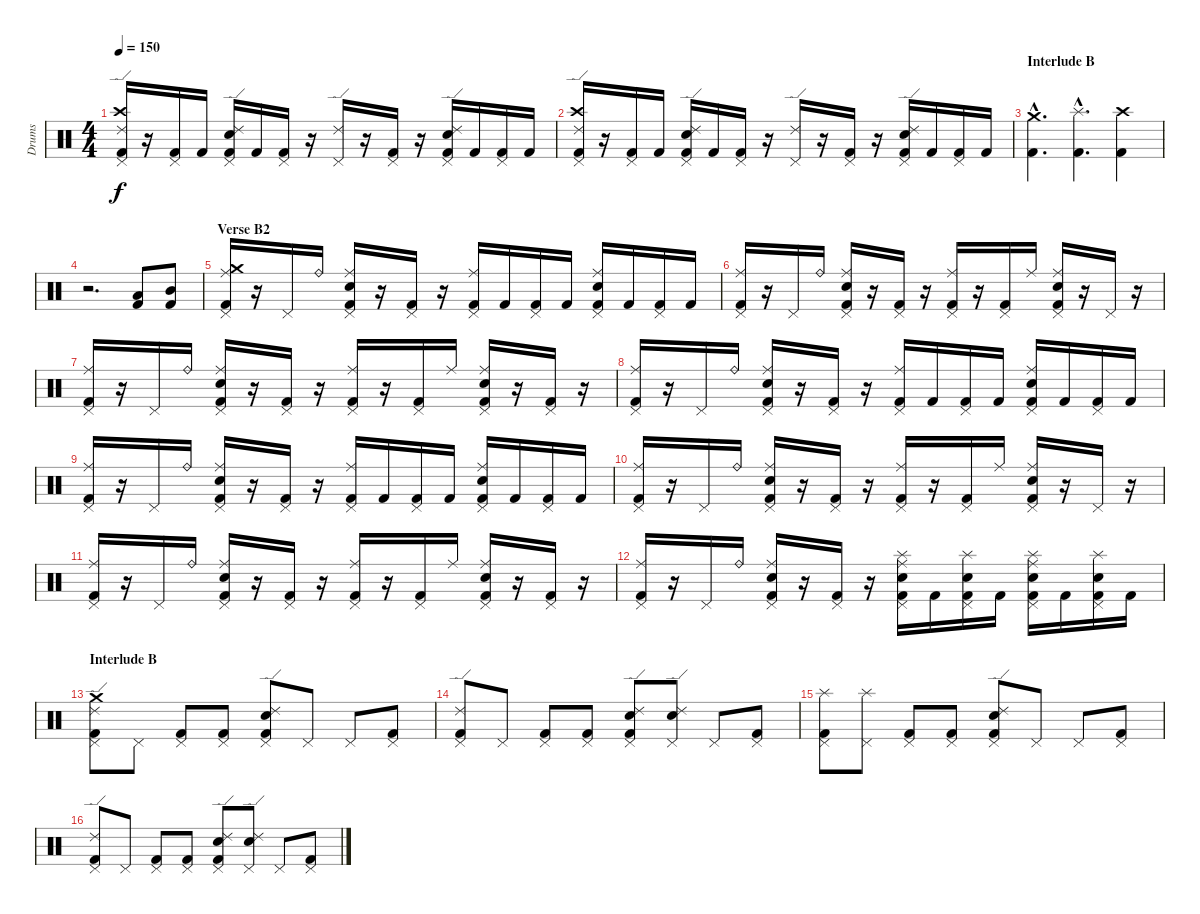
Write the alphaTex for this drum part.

\track ("Drums" "Drums") {instrument percussion}
\staff {score}
\articulation defaults
\ts (4 4)
\tempo 150
\clef neutral
\ks c
("Kick (hit) 2" "Pedal Hi-Hat (hit)" "Crash high (hit)" "Ride (edge) 2").16{dy f} r.16 ("Kick (hit) 2" "Pedal Hi-Hat (hit)").16 "Kick (hit) 2".16 ("Kick (hit) 2" "Snare (hit) 2" "Pedal Hi-Hat (hit)" "Ride (edge) 2").16 "Kick (hit) 2".16 ("Kick (hit) 2" "Pedal Hi-Hat (hit)").16 r.16 ("Pedal Hi-Hat (hit)" "Ride (edge) 2").16 r.16 ("Kick (hit) 2" "Pedal Hi-Hat (hit)").16 r.16 ("Kick (hit) 2" "Snare (hit) 2" "Pedal Hi-Hat (hit)" "Ride (edge) 2").16 "Kick (hit) 2".16 ("Kick (hit) 2" "Pedal Hi-Hat (hit)").16 "Kick (hit) 2".16 |
("Kick (hit) 2" "Pedal Hi-Hat (hit)" "Crash high (hit)" "Ride (edge) 2").16 r.16 ("Kick (hit) 2" "Pedal Hi-Hat (hit)").16 "Kick (hit) 2".16 ("Kick (hit) 2" "Snare (hit) 2" "Pedal Hi-Hat (hit)" "Ride (edge) 2").16 "Kick (hit) 2".16 ("Kick (hit) 2" "Pedal Hi-Hat (hit)").16 r.16 ("Pedal Hi-Hat (hit)" "Ride (edge) 2").16 r.16 ("Kick (hit) 2" "Pedal Hi-Hat (hit)").16 r.16 ("Kick (hit) 2" "Snare (hit) 2" "Pedal Hi-Hat (hit)" "Ride (edge) 2").16 "Kick (hit) 2".16 ("Kick (hit) 2" "Pedal Hi-Hat (hit)").16 "Kick (hit) 2".16 |
\section ("" "Interlude B")
("Kick (hit) 2"{hac} "Crash medium (hit)"{hac}).4{d} ("Kick (hit) 2"{hac} "Splash (hit)"{hac}).4{d} ("Kick (hit) 2" "Crash high (hit)").4 |
r.2{d} ("Kick (hit) 2" "Low Tom (hit)").8 ("Kick (hit) 2" "Mid Tom (hit)").8 |
\section ("" "Verse B2")
("Kick (hit) 2" "Crash medium (hit)" "Pedal Hi-Hat (hit)" "Ride (middle)").16 r.16 "Pedal Hi-Hat (hit)".16 "Ride (bell)".16 ("Kick (hit) 2" "Pedal Hi-Hat (hit)" "Snare (hit) 2" "Ride (middle)").16 r.16 ("Kick (hit) 2" "Pedal Hi-Hat (hit)").16 r.16 ("Kick (hit) 2" "Pedal Hi-Hat (hit)" "Ride (middle)").16 "Kick (hit) 2".16 ("Kick (hit) 2" "Pedal Hi-Hat (hit)").16 "Kick (hit) 2".16 ("Kick (hit) 2" "Pedal Hi-Hat (hit)" "Snare (hit) 2" "Ride (middle)").16 "Kick (hit) 2".16 ("Kick (hit) 2" "Pedal Hi-Hat (hit)").16 "Kick (hit) 2".16 |
("Kick (hit) 2" "Pedal Hi-Hat (hit)" "Ride (middle)").16 r.16 "Pedal Hi-Hat (hit)".16 "Ride (bell)".16 ("Kick (hit) 2" "Pedal Hi-Hat (hit)" "Snare (hit) 2" "Ride (middle)").16 r.16 ("Kick (hit) 2" "Pedal Hi-Hat (hit)").16 r.16 ("Kick (hit) 2" "Pedal Hi-Hat (hit)" "Ride (middle)").16 r.16 ("Kick (hit) 2" "Pedal Hi-Hat (hit)").16 "Ride (middle)".16 ("Kick (hit) 2" "Pedal Hi-Hat (hit)" "Snare (hit) 2" "Ride (middle)").16 r.16 "Pedal Hi-Hat (hit)".16 r.16 |
("Kick (hit) 2" "Pedal Hi-Hat (hit)" "Ride (middle)").16 r.16 "Pedal Hi-Hat (hit)".16 "Ride (bell)".16 ("Kick (hit) 2" "Pedal Hi-Hat (hit)" "Snare (hit) 2" "Ride (middle)").16 r.16 ("Kick (hit) 2" "Pedal Hi-Hat (hit)").16 r.16 ("Kick (hit) 2" "Pedal Hi-Hat (hit)" "Ride (middle)").16 r.16 ("Kick (hit) 2" "Pedal Hi-Hat (hit)").16 "Ride (middle)".16 ("Kick (hit) 2" "Pedal Hi-Hat (hit)" "Snare (hit) 2" "Ride (middle)").16 r.16 ("Kick (hit) 2" "Pedal Hi-Hat (hit)").16 r.16 |
("Kick (hit) 2" "Pedal Hi-Hat (hit)" "Ride (middle)").16 r.16 "Pedal Hi-Hat (hit)".16 "Ride (bell)".16 ("Kick (hit) 2" "Pedal Hi-Hat (hit)" "Snare (hit) 2" "Ride (middle)").16 r.16 ("Kick (hit) 2" "Pedal Hi-Hat (hit)").16 r.16 ("Kick (hit) 2" "Pedal Hi-Hat (hit)" "Ride (middle)").16 "Kick (hit) 2".16 ("Kick (hit) 2" "Pedal Hi-Hat (hit)").16 "Kick (hit) 2".16 ("Kick (hit) 2" "Pedal Hi-Hat (hit)" "Snare (hit) 2" "Ride (middle)").16 "Kick (hit) 2".16 ("Kick (hit) 2" "Pedal Hi-Hat (hit)").16 "Kick (hit) 2".16 |
("Kick (hit) 2" "Pedal Hi-Hat (hit)" "Ride (middle)").16 r.16 "Pedal Hi-Hat (hit)".16 "Ride (bell)".16 ("Kick (hit) 2" "Pedal Hi-Hat (hit)" "Snare (hit) 2" "Ride (middle)").16 r.16 ("Kick (hit) 2" "Pedal Hi-Hat (hit)").16 r.16 ("Kick (hit) 2" "Pedal Hi-Hat (hit)" "Ride (middle)").16 "Kick (hit) 2".16 ("Kick (hit) 2" "Pedal Hi-Hat (hit)").16 "Kick (hit) 2".16 ("Kick (hit) 2" "Pedal Hi-Hat (hit)" "Snare (hit) 2" "Ride (middle)").16 "Kick (hit) 2".16 ("Kick (hit) 2" "Pedal Hi-Hat (hit)").16 "Kick (hit) 2".16 |
("Kick (hit) 2" "Pedal Hi-Hat (hit)" "Ride (middle)").16 r.16 "Pedal Hi-Hat (hit)".16 "Ride (bell)".16 ("Kick (hit) 2" "Pedal Hi-Hat (hit)" "Snare (hit) 2" "Ride (middle)").16 r.16 ("Kick (hit) 2" "Pedal Hi-Hat (hit)").16 r.16 ("Kick (hit) 2" "Pedal Hi-Hat (hit)" "Ride (middle)").16 r.16 ("Kick (hit) 2" "Pedal Hi-Hat (hit)").16 "Ride (middle)".16 ("Kick (hit) 2" "Pedal Hi-Hat (hit)" "Snare (hit) 2" "Ride (middle)").16 r.16 "Pedal Hi-Hat (hit)".16 r.16 |
("Kick (hit) 2" "Pedal Hi-Hat (hit)" "Ride (middle)").16 r.16 "Pedal Hi-Hat (hit)".16 "Ride (bell)".16 ("Kick (hit) 2" "Pedal Hi-Hat (hit)" "Snare (hit) 2" "Ride (middle)").16 r.16 ("Kick (hit) 2" "Pedal Hi-Hat (hit)").16 r.16 ("Kick (hit) 2" "Pedal Hi-Hat (hit)" "Ride (middle)").16 r.16 ("Kick (hit) 2" "Pedal Hi-Hat (hit)").16 "Ride (middle)".16 ("Kick (hit) 2" "Pedal Hi-Hat (hit)" "Snare (hit) 2" "Ride (middle)").16 r.16 ("Kick (hit) 2" "Pedal Hi-Hat (hit)").16 r.16 |
("Kick (hit) 2" "Pedal Hi-Hat (hit)" "Ride (middle)").16 r.16 "Pedal Hi-Hat (hit)".16 "Ride (bell)".16 ("Kick (hit) 2" "Pedal Hi-Hat (hit)" "Snare (hit) 2" "Ride (middle)").16 r.16 ("Kick (hit) 2" "Pedal Hi-Hat (hit)").16 r.16 ("Kick (hit) 2" "Splash (hit)" "Pedal Hi-Hat (hit)" "Snare (hit) 2" "Ride (middle)").16 "Kick (hit) 2".16 ("Kick (hit) 2" "Splash (hit)" "Pedal Hi-Hat (hit)" "Snare (hit) 2").16 "Kick (hit) 2".16 ("Kick (hit) 2" "Splash (hit)" "Pedal Hi-Hat (hit)" "Snare (hit) 2" "Ride (middle)").16 "Kick (hit) 2".16 ("Kick (hit) 2" "Splash (hit)" "Pedal Hi-Hat (hit)" "Snare (hit) 2").16 "Kick (hit) 2".16 |
\section ("" "Interlude B")
("Kick (hit) 2" "Crash medium (hit)" "Ride (edge) 2" "Pedal Hi-Hat (hit)").8 "Pedal Hi-Hat (hit)".8 ("Kick (hit) 2" "Pedal Hi-Hat (hit)").8 ("Kick (hit) 2" "Pedal Hi-Hat (hit)").8 ("Kick (hit) 2" "Snare (hit) 2" "Ride (edge) 2" "Pedal Hi-Hat (hit)").8 "Pedal Hi-Hat (hit)".8 "Pedal Hi-Hat (hit)".8 ("Kick (hit) 2" "Pedal Hi-Hat (hit)").8 |
("Kick (hit) 2" "Ride (edge) 2" "Pedal Hi-Hat (hit)").8 "Pedal Hi-Hat (hit)".8 ("Kick (hit) 2" "Pedal Hi-Hat (hit)").8 ("Kick (hit) 2" "Pedal Hi-Hat (hit)").8 ("Kick (hit) 2" "Snare (hit) 2" "Ride (edge) 2" "Pedal Hi-Hat (hit)").8 ("Snare (hit) 2" "Ride (edge) 2" "Pedal Hi-Hat (hit)").8 "Pedal Hi-Hat (hit)".8 ("Kick (hit) 2" "Pedal Hi-Hat (hit)").8 |
("Kick (hit) 2" "Splash (hit)" "Pedal Hi-Hat (hit)").8 ("Splash (hit)" "Pedal Hi-Hat (hit)").8 ("Kick (hit) 2" "Pedal Hi-Hat (hit)").8 ("Kick (hit) 2" "Pedal Hi-Hat (hit)").8 ("Kick (hit) 2" "Snare (hit) 2" "Ride (edge) 2" "Pedal Hi-Hat (hit)").8 "Pedal Hi-Hat (hit)".8 "Pedal Hi-Hat (hit)".8 ("Kick (hit) 2" "Pedal Hi-Hat (hit)").8 |
("Kick (hit) 2" "Ride (edge) 2" "Pedal Hi-Hat (hit)").8 "Pedal Hi-Hat (hit)".8 ("Kick (hit) 2" "Pedal Hi-Hat (hit)").8 ("Kick (hit) 2" "Pedal Hi-Hat (hit)").8 ("Kick (hit) 2" "Snare (hit) 2" "Ride (edge) 2" "Pedal Hi-Hat (hit)").8 ("Snare (hit) 2" "Ride (edge) 2" "Pedal Hi-Hat (hit)").8 "Pedal Hi-Hat (hit)".8 ("Kick (hit) 2" "Pedal Hi-Hat (hit)").8
